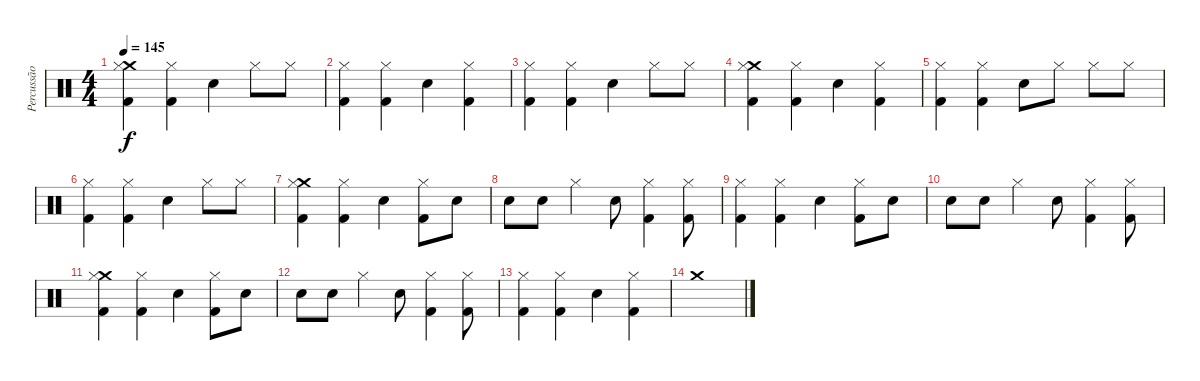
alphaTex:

\track ("Percussão" "Percussão") {instrument percussion}
\staff {score}
\articulation defaults
\ts (4 4)
\tempo 145
\clef neutral
\ks c
("Crash medium (hit)" "Hi-Hat (closed)" "Kick (hit) 2").4{dy f} ("Hi-Hat (closed)" "Kick (hit) 2").4 "Snare (hit) 2".4 "Hi-Hat (closed)".8 "Hi-Hat (closed)".8 |
("Hi-Hat (closed)" "Kick (hit) 2").4 ("Hi-Hat (closed)" "Kick (hit) 2").4 "Snare (hit) 2".4 ("Hi-Hat (closed)" "Kick (hit) 2").4 |
("Hi-Hat (closed)" "Kick (hit) 2").4 ("Hi-Hat (closed)" "Kick (hit) 2").4 "Snare (hit) 2".4 "Hi-Hat (closed)".8 "Hi-Hat (closed)".8 |
("Crash medium (hit)" "Hi-Hat (closed)" "Kick (hit) 2").4 ("Hi-Hat (closed)" "Kick (hit) 2").4 "Snare (hit) 2".4 ("Hi-Hat (closed)" "Kick (hit) 2").4 |
("Hi-Hat (closed)" "Kick (hit) 2").4 ("Hi-Hat (closed)" "Kick (hit) 2").4 "Snare (hit) 2".8 "Hi-Hat (closed)".8 "Hi-Hat (closed)".8 "Hi-Hat (closed)".8 |
("Hi-Hat (closed)" "Kick (hit) 2").4 ("Hi-Hat (closed)" "Kick (hit) 2").4 "Snare (hit) 2".4 "Hi-Hat (closed)".8 "Hi-Hat (closed)".8 |
("Crash medium (hit)" "Hi-Hat (closed)" "Kick (hit) 2").4 ("Hi-Hat (closed)" "Kick (hit) 2").4 "Snare (hit) 2".4 ("Hi-Hat (closed)" "Kick (hit) 2").8 "Snare (hit) 2".8 |
"Snare (hit) 2".8 "Snare (hit) 2".8 "Hi-Hat (closed)".4 "Snare (hit) 2".8 ("Hi-Hat (closed)" "Kick (hit) 2").4 ("Hi-Hat (closed)" "Kick (hit) 2").8 |
("Hi-Hat (closed)" "Kick (hit) 2").4 ("Hi-Hat (closed)" "Kick (hit) 2").4 "Snare (hit) 2".4 ("Hi-Hat (closed)" "Kick (hit) 2").8 "Snare (hit) 2".8 |
"Snare (hit) 2".8 "Snare (hit) 2".8 "Hi-Hat (closed)".4 "Snare (hit) 2".8 ("Hi-Hat (closed)" "Kick (hit) 2").4 ("Hi-Hat (closed)" "Kick (hit) 2").8 |
("Crash medium (hit)" "Hi-Hat (closed)" "Kick (hit) 2").4 ("Hi-Hat (closed)" "Kick (hit) 2").4 "Snare (hit) 2".4 ("Hi-Hat (closed)" "Kick (hit) 2").8 "Snare (hit) 2".8 |
"Snare (hit) 2".8 "Snare (hit) 2".8 "Hi-Hat (closed)".4 "Snare (hit) 2".8 ("Hi-Hat (closed)" "Kick (hit) 2").4 ("Hi-Hat (closed)" "Kick (hit) 2").8 |
("Hi-Hat (closed)" "Kick (hit) 2").4 ("Hi-Hat (closed)" "Kick (hit) 2").4 "Snare (hit) 2".4 ("Hi-Hat (closed)" "Kick (hit) 2").4 |
"Crash medium (hit)".1
